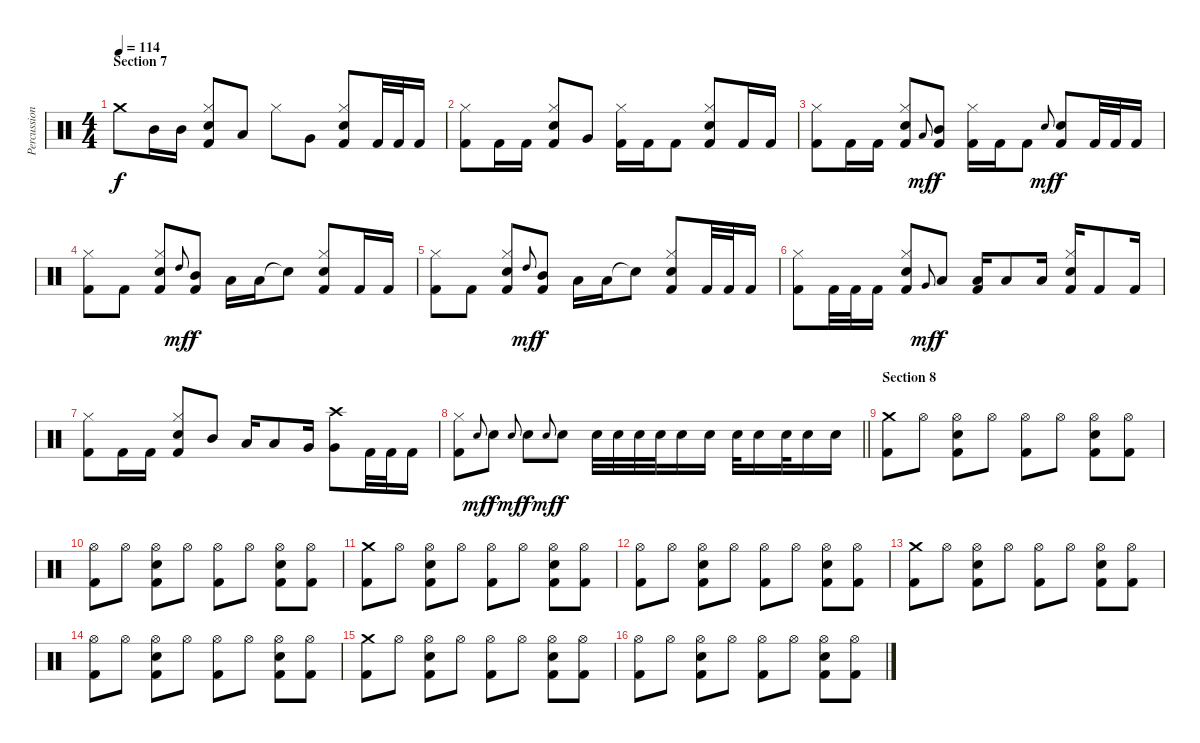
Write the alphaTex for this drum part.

\track ("Percussion" "Percussion") {instrument percussion}
\staff {score}
\articulation defaults
\ts (4 4)
\section ("" "Section 7")
\tempo 114
\clef neutral
\ks c "Crash medium (hit)".8{dy f} "Mid Tom (hit)".16 "Mid Tom (hit)".16
("Snare (hit) 2" "Hi-Hat (closed)" "Kick (hit) 2").8 "Low Tom (hit)".8 "Hi-Hat (closed)".8 "Very Low Tom (hit)".8 ("Snare (hit) 2" "Hi-Hat (closed)" "Kick (hit) 2").8 "Kick (hit) 2".32 "Kick (hit) 2".32 "Kick (hit) 2".16 |
("Hi-Hat (closed)" "Kick (hit) 2").8 "Kick (hit) 2".16 "Kick (hit) 2".16 ("Snare (hit) 2" "Hi-Hat (closed)" "Kick (hit) 2").8 "Very Low Tom (hit)".8 ("Hi-Hat (closed)" "Kick (hit) 2").16 "Kick (hit) 2".16 "Kick (hit) 2".8 ("Snare (hit) 2" "Hi-Hat (closed)" "Kick (hit) 2").8 "Kick (hit) 2".16 "Kick (hit) 2".16 |
("Hi-Hat (closed)" "Kick (hit) 2").8 "Kick (hit) 2".16 "Kick (hit) 2".16 ("Snare (hit) 2" "Hi-Hat (closed)" "Kick (hit) 2").8 "Low Tom (hit)".8{gr onbeat dy mf} ("Mid Tom (hit)" "Kick (hit) 2").8{dy f} ("Hi-Hat (closed)" "Kick (hit) 2").16 "Kick (hit) 2".16 "Kick (hit) 2".8 "Snare (hit) 2".8{gr onbeat dy mf} ("Snare (hit) 2" "Kick (hit) 2").8{dy f} "Kick (hit) 2".32 "Kick (hit) 2".32 "Kick (hit) 2".16 |
("Hi-Hat (closed)" "Kick (hit) 2").8 "Kick (hit) 2".8 ("Snare (hit) 2" "Hi-Hat (closed)" "Kick (hit) 2").8 "High Tom (hit)".8{gr onbeat dy mf} ("Mid Tom (hit)" "Kick (hit) 2").8{dy f} "Low Tom (hit)".16 "Low Tom (hit)".16 "Snare (hit)"{t}.8 ("Snare (hit) 2" "Hi-Hat (closed)" "Kick (hit) 2").8 "Kick (hit) 2".16 "Kick (hit) 2".16 |
("Hi-Hat (closed)" "Kick (hit) 2").8 "Kick (hit) 2".8 ("Snare (hit) 2" "Hi-Hat (closed)" "Kick (hit) 2").8 "High Tom (hit)".8{gr onbeat dy mf} ("Mid Tom (hit)" "Kick (hit) 2").8{dy f} "Low Tom (hit)".16 "Low Tom (hit)".16 "Snare (hit)"{t}.8 ("Snare (hit) 2" "Hi-Hat (closed)" "Kick (hit) 2").8 "Kick (hit) 2".32 "Kick (hit) 2".32 "Kick (hit) 2".16 |
("Hi-Hat (closed)" "Kick (hit) 2").8 "Kick (hit) 2".32 "Kick (hit) 2".32 "Kick (hit) 2".16 ("Snare (hit) 2" "Hi-Hat (closed)" "Kick (hit) 2").8 "Very Low Tom (hit)".8{gr onbeat dy mf} "Low Tom (hit)".8{dy f} ("Low Tom (hit)" "Kick (hit) 2").16 "Low Tom (hit)".8 "Low Tom (hit)".16 ("Snare (hit) 2" "Hi-Hat (closed)" "Kick (hit) 2").16 "Kick (hit) 2".8 "Kick (hit) 2".16 |
("Hi-Hat (closed)" "Kick (hit) 2").8 "Kick (hit) 2".16 "Kick (hit) 2".16 ("Snare (hit) 2" "Hi-Hat (closed)" "Kick (hit) 2").8 "Mid Tom (hit)".8 "Low Tom (hit)".16 "Low Tom (hit)".8 "Very Low Tom (hit)".16 ("Crash high (hit)" "Very Low Tom (hit)").8 "Kick (hit) 2".32 "Kick (hit) 2".32 "Kick (hit) 2".16 |
\barLineRight lightlight
("Hi-Hat (closed)" "Kick (hit) 2").8 "Snare (hit) 2".8{gr onbeat dy mf} "Snare (hit) 2".8{dy f} "Snare (hit) 2".8{gr onbeat dy mf} "Snare (hit) 2".8{dy f} "Snare (hit) 2".8{gr onbeat dy mf} "Snare (hit) 2".8{dy f} "Snare (hit) 2".32 "Snare (hit) 2".32 "Snare (hit) 2".32 "Snare (hit) 2".32 "Snare (hit) 2".16 "Snare (hit) 2".16 "Snare (hit) 2".32 "Snare (hit) 2".16 "Snare (hit) 2".32 "Snare (hit) 2".16 "Snare (hit) 2".16 |
\section ("" "Section 8")
("Crash medium (hit)" "Kick (hit) 2").8 "Hi-Hat (open)".8 ("Snare (hit) 2" "Hi-Hat (open)" "Kick (hit) 2").8 "Hi-Hat (open)".8 ("Hi-Hat (open)" "Kick (hit) 2").8 "Hi-Hat (open)".8 ("Snare (hit) 2" "Hi-Hat (open)" "Kick (hit) 2").8 ("Hi-Hat (open)" "Kick (hit) 2").8 |
("Hi-Hat (open)" "Kick (hit) 2").8 "Hi-Hat (open)".8 ("Snare (hit) 2" "Hi-Hat (open)" "Kick (hit) 2").8 "Hi-Hat (open)".8 ("Hi-Hat (open)" "Kick (hit) 2").8 "Hi-Hat (open)".8 ("Snare (hit) 2" "Hi-Hat (open)" "Kick (hit) 2").8 ("Hi-Hat (open)" "Kick (hit) 2").8 |
("Crash medium (hit)" "Kick (hit) 2").8 "Hi-Hat (open)".8 ("Snare (hit) 2" "Hi-Hat (open)" "Kick (hit) 2").8 "Hi-Hat (open)".8 ("Hi-Hat (open)" "Kick (hit) 2").8 "Hi-Hat (open)".8 ("Snare (hit) 2" "Hi-Hat (open)" "Kick (hit) 2").8 ("Hi-Hat (open)" "Kick (hit) 2").8 |
("Hi-Hat (open)" "Kick (hit) 2").8 "Hi-Hat (open)".8 ("Snare (hit) 2" "Hi-Hat (open)" "Kick (hit) 2").8 "Hi-Hat (open)".8 ("Hi-Hat (open)" "Kick (hit) 2").8 "Hi-Hat (open)".8 ("Snare (hit) 2" "Hi-Hat (open)" "Kick (hit) 2").8 ("Hi-Hat (open)" "Kick (hit) 2").8 |
("Crash medium (hit)" "Kick (hit) 2").8 "Hi-Hat (open)".8 ("Snare (hit) 2" "Hi-Hat (open)" "Kick (hit) 2").8 "Hi-Hat (open)".8 ("Hi-Hat (open)" "Kick (hit) 2").8 "Hi-Hat (open)".8 ("Snare (hit) 2" "Hi-Hat (open)" "Kick (hit) 2").8 ("Hi-Hat (open)" "Kick (hit) 2").8 |
("Hi-Hat (open)" "Kick (hit) 2").8 "Hi-Hat (open)".8 ("Snare (hit) 2" "Hi-Hat (open)" "Kick (hit) 2").8 "Hi-Hat (open)".8 ("Hi-Hat (open)" "Kick (hit) 2").8 "Hi-Hat (open)".8 ("Snare (hit) 2" "Hi-Hat (open)" "Kick (hit) 2").8 ("Hi-Hat (open)" "Kick (hit) 2").8 |
("Crash medium (hit)" "Kick (hit) 2").8 "Hi-Hat (open)".8 ("Snare (hit) 2" "Hi-Hat (open)" "Kick (hit) 2").8 "Hi-Hat (open)".8 ("Hi-Hat (open)" "Kick (hit) 2").8 "Hi-Hat (open)".8 ("Snare (hit) 2" "Hi-Hat (open)" "Kick (hit) 2").8 ("Hi-Hat (open)" "Kick (hit) 2").8 |
("Hi-Hat (open)" "Kick (hit) 2").8 "Hi-Hat (open)".8 ("Snare (hit) 2" "Hi-Hat (open)" "Kick (hit) 2").8 "Hi-Hat (open)".8 ("Hi-Hat (open)" "Kick (hit) 2").8 "Hi-Hat (open)".8 ("Snare (hit) 2" "Hi-Hat (open)" "Kick (hit) 2").8 ("Hi-Hat (open)" "Kick (hit) 2").8
